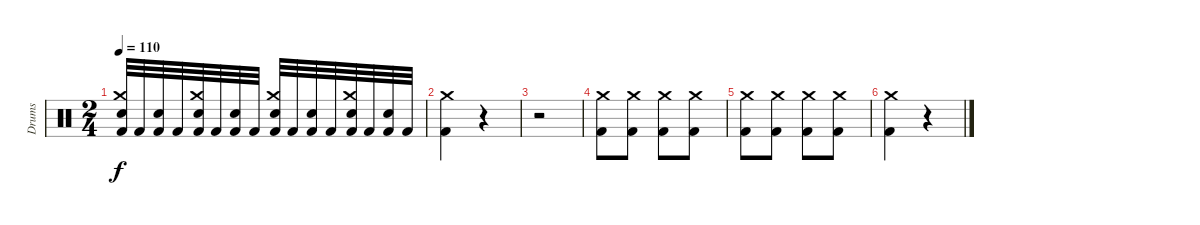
\track ("Drums" "Drums") {instrument percussion}
\staff {score}
\articulation defaults
\ts (2 4)
\tempo 110
\clef neutral
\ks c
("Kick (hit) 2" "Crash medium (hit)" "Electric Snare (hit)").32{dy f} "Kick (hit) 2".32 ("Kick (hit) 2" "Electric Snare (hit)").32 "Kick (hit) 2".32 ("Kick (hit) 2" "Crash medium (hit)" "Electric Snare (hit)").32 "Kick (hit) 2".32 ("Kick (hit) 2" "Electric Snare (hit)").32 "Kick (hit) 2".32 ("Kick (hit) 2" "Crash medium (hit)" "Electric Snare (hit)").32 "Kick (hit) 2".32 ("Kick (hit) 2" "Electric Snare (hit)").32 "Kick (hit) 2".32 ("Kick (hit) 2" "Crash medium (hit)" "Electric Snare (hit)").32 "Kick (hit) 2".32 ("Kick (hit) 2" "Electric Snare (hit)").32 "Kick (hit) 2".32 |
("Kick (hit) 2" "Crash medium (hit)").4 r.4 |
r.2 |
("Kick (hit) 2" "Crash medium (hit)").8 ("Kick (hit) 2" "Crash medium (hit)").8 ("Kick (hit) 2" "Crash medium (hit)").8 ("Kick (hit) 2" "Crash medium (hit)").8 |
("Kick (hit) 2" "Crash medium (hit)").8 ("Kick (hit) 2" "Crash medium (hit)").8 ("Kick (hit) 2" "Crash medium (hit)").8 ("Kick (hit) 2" "Crash medium (hit)").8 |
("Kick (hit) 2" "Crash medium (hit)").4 r.4
